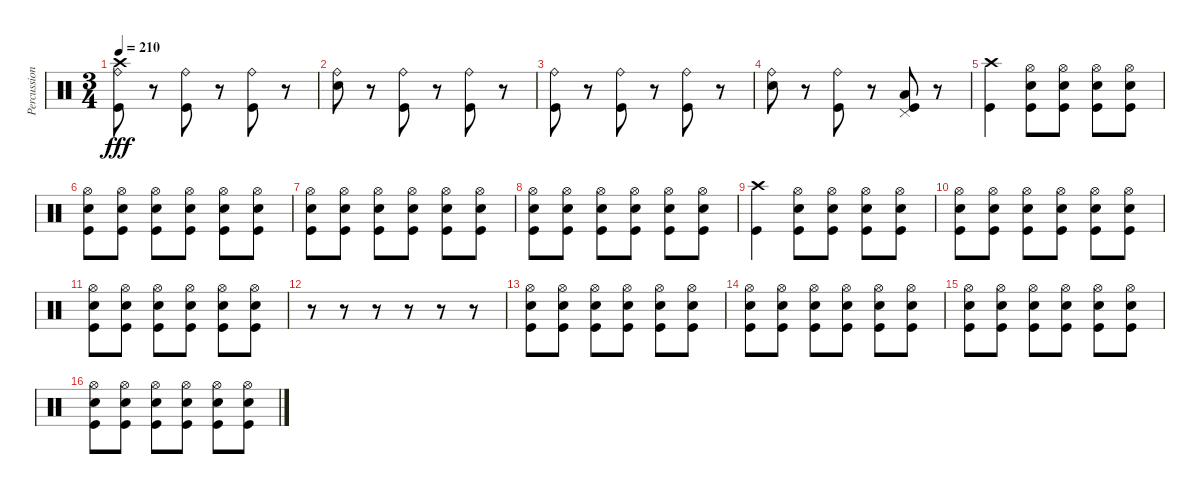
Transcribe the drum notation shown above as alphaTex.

\track ("Percussion" "Percussion") {instrument percussion}
\staff {score}
\articulation defaults
\ts (3 4)
\tempo 210
\clef neutral
\ks c
("Crash high (hit)" "Ride (bell)" "Kick (hit)").8{dy fff} r.8 ("Ride (bell)" "Kick (hit)").8 r.8 ("Ride (bell)" "Kick (hit)").8 r.8 |
("Ride (bell)" "Electric Snare (hit)").8 r.8 ("Ride (bell)" "Kick (hit)").8 r.8 ("Ride (bell)" "Kick (hit)").8 r.8 |
("Ride (bell)" "Kick (hit)").8 r.8 ("Ride (bell)" "Kick (hit)").8 r.8 ("Ride (bell)" "Kick (hit)").8 r.8 |
("Ride (bell)" "Electric Snare (hit)").8 r.8 ("Ride (bell)" "Kick (hit)").8 r.8 ("Pedal Hi-Hat (hit)" "Low Floor Tom (hit)" "Kick (hit)").8 r.8 |
("Crash high (hit)" "Kick (hit)").4 ("Hi-Hat (open)" "Electric Snare (hit)" "Kick (hit)").8 ("Hi-Hat (open)" "Electric Snare (hit)" "Kick (hit)").8 ("Hi-Hat (open)" "Electric Snare (hit)" "Kick (hit)").8 ("Hi-Hat (open)" "Electric Snare (hit)" "Kick (hit)").8 |
("Hi-Hat (open)" "Electric Snare (hit)" "Kick (hit)").8 ("Hi-Hat (open)" "Electric Snare (hit)" "Kick (hit)").8 ("Hi-Hat (open)" "Electric Snare (hit)" "Kick (hit)").8 ("Hi-Hat (open)" "Electric Snare (hit)" "Kick (hit)").8 ("Hi-Hat (open)" "Electric Snare (hit)" "Kick (hit)").8 ("Hi-Hat (open)" "Electric Snare (hit)" "Kick (hit)").8 |
("Hi-Hat (open)" "Electric Snare (hit)" "Kick (hit)").8 ("Hi-Hat (open)" "Electric Snare (hit)" "Kick (hit)").8 ("Hi-Hat (open)" "Electric Snare (hit)" "Kick (hit)").8 ("Hi-Hat (open)" "Electric Snare (hit)" "Kick (hit)").8 ("Hi-Hat (open)" "Electric Snare (hit)" "Kick (hit)").8 ("Hi-Hat (open)" "Electric Snare (hit)" "Kick (hit)").8 |
("Hi-Hat (open)" "Electric Snare (hit)" "Kick (hit)").8 ("Hi-Hat (open)" "Electric Snare (hit)" "Kick (hit)").8 ("Hi-Hat (open)" "Electric Snare (hit)" "Kick (hit)").8 ("Hi-Hat (open)" "Electric Snare (hit)" "Kick (hit)").8 ("Hi-Hat (open)" "Electric Snare (hit)" "Kick (hit)").8 ("Hi-Hat (open)" "Electric Snare (hit)" "Kick (hit)").8 |
("Crash high (hit)" "Kick (hit)").4 ("Hi-Hat (open)" "Electric Snare (hit)" "Kick (hit)").8 ("Hi-Hat (open)" "Electric Snare (hit)" "Kick (hit)").8 ("Hi-Hat (open)" "Electric Snare (hit)" "Kick (hit)").8 ("Hi-Hat (open)" "Electric Snare (hit)" "Kick (hit)").8 |
("Hi-Hat (open)" "Electric Snare (hit)" "Kick (hit)").8 ("Hi-Hat (open)" "Electric Snare (hit)" "Kick (hit)").8 ("Hi-Hat (open)" "Electric Snare (hit)" "Kick (hit)").8 ("Hi-Hat (open)" "Electric Snare (hit)" "Kick (hit)").8 ("Hi-Hat (open)" "Electric Snare (hit)" "Kick (hit)").8 ("Hi-Hat (open)" "Electric Snare (hit)" "Kick (hit)").8 |
("Hi-Hat (open)" "Electric Snare (hit)" "Kick (hit)").8 ("Hi-Hat (open)" "Electric Snare (hit)" "Kick (hit)").8 ("Hi-Hat (open)" "Electric Snare (hit)" "Kick (hit)").8 ("Hi-Hat (open)" "Electric Snare (hit)" "Kick (hit)").8 ("Hi-Hat (open)" "Electric Snare (hit)" "Kick (hit)").8 ("Hi-Hat (open)" "Electric Snare (hit)" "Kick (hit)").8 |
r.8 r.8 r.8 r.8 r.8 r.8 |
("Hi-Hat (open)" "Electric Snare (hit)" "Kick (hit)").8 ("Hi-Hat (open)" "Electric Snare (hit)" "Kick (hit)").8 ("Hi-Hat (open)" "Electric Snare (hit)" "Kick (hit)").8 ("Hi-Hat (open)" "Electric Snare (hit)" "Kick (hit)").8 ("Hi-Hat (open)" "Electric Snare (hit)" "Kick (hit)").8 ("Hi-Hat (open)" "Electric Snare (hit)" "Kick (hit)").8 |
("Hi-Hat (open)" "Electric Snare (hit)" "Kick (hit)").8 ("Hi-Hat (open)" "Electric Snare (hit)" "Kick (hit)").8 ("Hi-Hat (open)" "Electric Snare (hit)" "Kick (hit)").8 ("Hi-Hat (open)" "Electric Snare (hit)" "Kick (hit)").8 ("Hi-Hat (open)" "Electric Snare (hit)" "Kick (hit)").8 ("Hi-Hat (open)" "Electric Snare (hit)" "Kick (hit)").8 |
("Hi-Hat (open)" "Electric Snare (hit)" "Kick (hit)").8 ("Hi-Hat (open)" "Electric Snare (hit)" "Kick (hit)").8 ("Hi-Hat (open)" "Electric Snare (hit)" "Kick (hit)").8 ("Hi-Hat (open)" "Electric Snare (hit)" "Kick (hit)").8 ("Hi-Hat (open)" "Electric Snare (hit)" "Kick (hit)").8 ("Hi-Hat (open)" "Electric Snare (hit)" "Kick (hit)").8 |
("Hi-Hat (open)" "Electric Snare (hit)" "Kick (hit)").8 ("Hi-Hat (open)" "Electric Snare (hit)" "Kick (hit)").8 ("Hi-Hat (open)" "Electric Snare (hit)" "Kick (hit)").8 ("Hi-Hat (open)" "Electric Snare (hit)" "Kick (hit)").8 ("Hi-Hat (open)" "Electric Snare (hit)" "Kick (hit)").8 ("Hi-Hat (open)" "Electric Snare (hit)" "Kick (hit)").8
